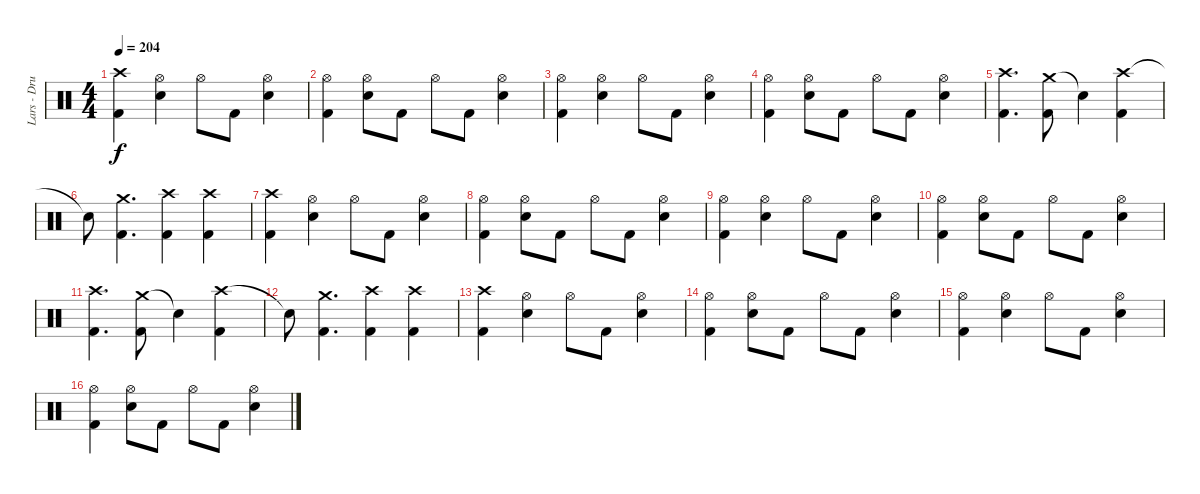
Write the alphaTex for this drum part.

\track ("Lars - Drums" "Lars - Dru") {instrument percussion}
\staff {score}
\articulation defaults
\ts (4 4)
\tempo 204
\clef neutral
\ks c
("Crash high (hit)" "Kick (hit) 2").4{dy f} ("Hi-Hat (open)" "Electric Snare (hit)").4 "Hi-Hat (open)".8 "Kick (hit) 2".8 ("Hi-Hat (open)" "Electric Snare (hit)").4 |
("Hi-Hat (open)" "Kick (hit) 2").4 ("Hi-Hat (open)" "Electric Snare (hit)").8 "Kick (hit) 2".8 "Hi-Hat (open)".8 "Kick (hit) 2".8 ("Hi-Hat (open)" "Electric Snare (hit)").4 |
("Hi-Hat (open)" "Kick (hit) 2").4 ("Hi-Hat (open)" "Electric Snare (hit)").4 "Hi-Hat (open)".8 "Kick (hit) 2".8 ("Hi-Hat (open)" "Electric Snare (hit)").4 |
("Hi-Hat (open)" "Kick (hit) 2").4 ("Hi-Hat (open)" "Electric Snare (hit)").8 "Kick (hit) 2".8 "Hi-Hat (open)".8 "Kick (hit) 2".8 ("Hi-Hat (open)" "Electric Snare (hit)").4 |
("Crash high (hit)" "Kick (hit) 2").4{d} ("Crash medium (hit)" "Kick (hit) 2").8 "Snare (hit)"{t}.4 ("Crash high (hit)" "Kick (hit) 2").4 |
"Snare (hit)"{t}.8 ("Crash medium (hit)" "Kick (hit) 2").4{d} ("Crash high (hit)" "Kick (hit) 2").4 ("Crash high (hit)" "Kick (hit) 2").4 |
("Crash high (hit)" "Kick (hit) 2").4 ("Hi-Hat (open)" "Electric Snare (hit)").4 "Hi-Hat (open)".8 "Kick (hit) 2".8 ("Hi-Hat (open)" "Electric Snare (hit)").4 |
("Hi-Hat (open)" "Kick (hit) 2").4 ("Hi-Hat (open)" "Electric Snare (hit)").8 "Kick (hit) 2".8 "Hi-Hat (open)".8 "Kick (hit) 2".8 ("Hi-Hat (open)" "Electric Snare (hit)").4 |
("Hi-Hat (open)" "Kick (hit) 2").4 ("Hi-Hat (open)" "Electric Snare (hit)").4 "Hi-Hat (open)".8 "Kick (hit) 2".8 ("Hi-Hat (open)" "Electric Snare (hit)").4 |
("Hi-Hat (open)" "Kick (hit) 2").4 ("Hi-Hat (open)" "Electric Snare (hit)").8 "Kick (hit) 2".8 "Hi-Hat (open)".8 "Kick (hit) 2".8 ("Hi-Hat (open)" "Electric Snare (hit)").4 |
("Crash high (hit)" "Kick (hit) 2").4{d} ("Crash medium (hit)" "Kick (hit) 2").8 "Snare (hit)"{t}.4 ("Crash high (hit)" "Kick (hit) 2").4 |
"Snare (hit)"{t}.8 ("Crash medium (hit)" "Kick (hit) 2").4{d} ("Crash high (hit)" "Kick (hit) 2").4 ("Crash high (hit)" "Kick (hit) 2").4 |
("Crash high (hit)" "Kick (hit) 2").4 ("Hi-Hat (open)" "Electric Snare (hit)").4 "Hi-Hat (open)".8 "Kick (hit) 2".8 ("Hi-Hat (open)" "Electric Snare (hit)").4 |
("Hi-Hat (open)" "Kick (hit) 2").4 ("Hi-Hat (open)" "Electric Snare (hit)").8 "Kick (hit) 2".8 "Hi-Hat (open)".8 "Kick (hit) 2".8 ("Hi-Hat (open)" "Electric Snare (hit)").4 |
("Hi-Hat (open)" "Kick (hit) 2").4 ("Hi-Hat (open)" "Electric Snare (hit)").4 "Hi-Hat (open)".8 "Kick (hit) 2".8 ("Hi-Hat (open)" "Electric Snare (hit)").4 |
("Hi-Hat (open)" "Kick (hit) 2").4 ("Hi-Hat (open)" "Electric Snare (hit)").8 "Kick (hit) 2".8 "Hi-Hat (open)".8 "Kick (hit) 2".8 ("Hi-Hat (open)" "Electric Snare (hit)").4
